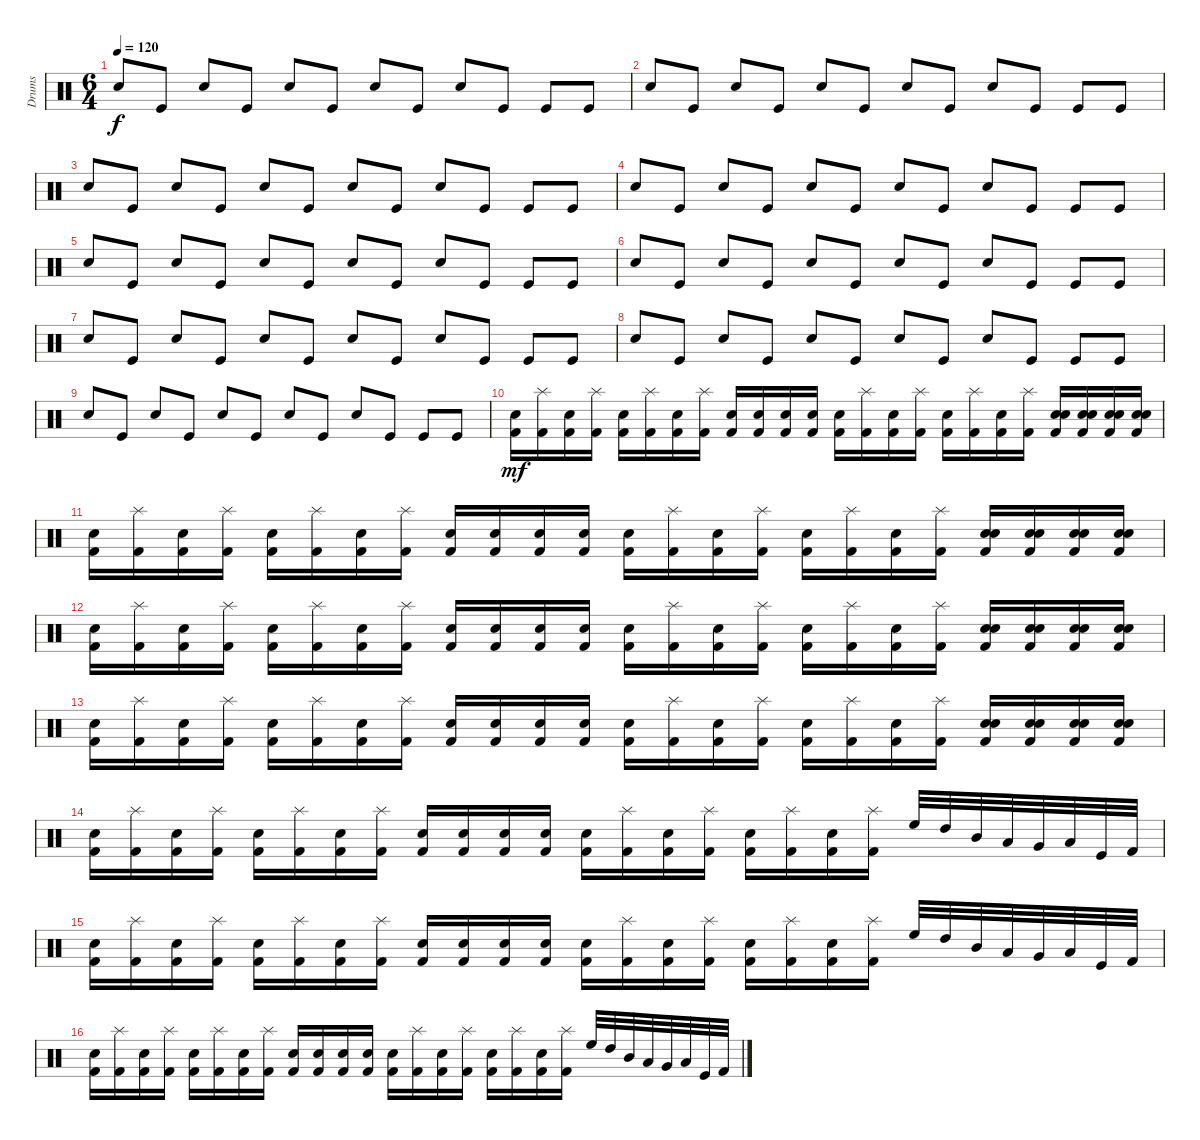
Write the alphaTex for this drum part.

\track ("Drums" "Drums") {instrument percussion}
\staff {score}
\articulation defaults
\ts (6 4)
\tempo 120
\clef neutral
\ks c "Snare (hit) 2".8{dy f} "Kick (hit)".8 "Snare (hit) 2".8 "Kick (hit)".8 "Snare (hit) 2".8 "Kick (hit)".8 "Snare (hit) 2".8 "Kick (hit)".8 "Snare (hit) 2".8 "Kick (hit)".8 "Kick (hit)".8 "Kick (hit)".8
|
"Snare (hit) 2".8 "Kick (hit)".8 "Snare (hit) 2".8 "Kick (hit)".8 "Snare (hit) 2".8 "Kick (hit)".8 "Snare (hit) 2".8 "Kick (hit)".8 "Snare (hit) 2".8 "Kick (hit)".8 "Kick (hit)".8 "Kick (hit)".8 |
"Snare (hit) 2".8 "Kick (hit)".8 "Snare (hit) 2".8 "Kick (hit)".8 "Snare (hit) 2".8 "Kick (hit)".8 "Snare (hit) 2".8 "Kick (hit)".8 "Snare (hit) 2".8 "Kick (hit)".8 "Kick (hit)".8 "Kick (hit)".8 |
"Snare (hit) 2".8 "Kick (hit)".8 "Snare (hit) 2".8 "Kick (hit)".8 "Snare (hit) 2".8 "Kick (hit)".8 "Snare (hit) 2".8 "Kick (hit)".8 "Snare (hit) 2".8 "Kick (hit)".8 "Kick (hit)".8 "Kick (hit)".8 |
"Snare (hit) 2".8 "Kick (hit)".8 "Snare (hit) 2".8 "Kick (hit)".8 "Snare (hit) 2".8 "Kick (hit)".8 "Snare (hit) 2".8 "Kick (hit)".8 "Snare (hit) 2".8 "Kick (hit)".8 "Kick (hit)".8 "Kick (hit)".8 |
"Snare (hit) 2".8 "Kick (hit)".8 "Snare (hit) 2".8 "Kick (hit)".8 "Snare (hit) 2".8 "Kick (hit)".8 "Snare (hit) 2".8 "Kick (hit)".8 "Snare (hit) 2".8 "Kick (hit)".8 "Kick (hit)".8 "Kick (hit)".8 |
"Snare (hit) 2".8 "Kick (hit)".8 "Snare (hit) 2".8 "Kick (hit)".8 "Snare (hit) 2".8 "Kick (hit)".8 "Snare (hit) 2".8 "Kick (hit)".8 "Snare (hit) 2".8 "Kick (hit)".8 "Kick (hit)".8 "Kick (hit)".8 |
"Snare (hit) 2".8 "Kick (hit)".8 "Snare (hit) 2".8 "Kick (hit)".8 "Snare (hit) 2".8 "Kick (hit)".8 "Snare (hit) 2".8 "Kick (hit)".8 "Snare (hit) 2".8 "Kick (hit)".8 "Kick (hit)".8 "Kick (hit)".8 |
"Snare (hit) 2".8 "Kick (hit)".8 "Snare (hit) 2".8 "Kick (hit)".8 "Snare (hit) 2".8 "Kick (hit)".8 "Snare (hit) 2".8 "Kick (hit)".8 "Snare (hit) 2".8 "Kick (hit)".8 "Kick (hit)".8 "Kick (hit)".8 |
("Electric Snare (hit)" "Kick (hit) 2").16{dy mf} ("Splash (hit)" "Kick (hit) 2").16 ("Electric Snare (hit)" "Kick (hit) 2").16 ("Splash (hit)" "Kick (hit) 2").16 ("Electric Snare (hit)" "Kick (hit) 2").16 ("Splash (hit)" "Kick (hit) 2").16 ("Electric Snare (hit)" "Kick (hit) 2").16 ("Splash (hit)" "Kick (hit) 2").16 ("Snare (hit) 2" "Kick (hit) 2").16 ("Snare (hit) 2" "Kick (hit) 2").16 ("Snare (hit) 2" "Kick (hit) 2").16 ("Snare (hit) 2" "Kick (hit) 2").16 ("Electric Snare (hit)" "Kick (hit) 2").16 ("Splash (hit)" "Kick (hit) 2").16 ("Electric Snare (hit)" "Kick (hit) 2").16 ("Splash (hit)" "Kick (hit) 2").16 ("Electric Snare (hit)" "Kick (hit) 2").16 ("Splash (hit)" "Kick (hit) 2").16 ("Electric Snare (hit)" "Kick (hit) 2").16 ("Splash (hit)" "Kick (hit) 2").16 ("Snare (hit) 2" "Electric Snare (hit)" "Kick (hit) 2").16 ("Snare (hit) 2" "Electric Snare (hit)" "Kick (hit) 2").16 ("Snare (hit) 2" "Electric Snare (hit)" "Kick (hit) 2").16 ("Snare (hit) 2" "Electric Snare (hit)" "Kick (hit) 2").16 |
("Electric Snare (hit)" "Kick (hit) 2").16 ("Splash (hit)" "Kick (hit) 2").16 ("Electric Snare (hit)" "Kick (hit) 2").16 ("Splash (hit)" "Kick (hit) 2").16 ("Electric Snare (hit)" "Kick (hit) 2").16 ("Splash (hit)" "Kick (hit) 2").16 ("Electric Snare (hit)" "Kick (hit) 2").16 ("Splash (hit)" "Kick (hit) 2").16 ("Snare (hit) 2" "Kick (hit) 2").16 ("Snare (hit) 2" "Kick (hit) 2").16 ("Snare (hit) 2" "Kick (hit) 2").16 ("Snare (hit) 2" "Kick (hit) 2").16 ("Electric Snare (hit)" "Kick (hit) 2").16 ("Splash (hit)" "Kick (hit) 2").16 ("Electric Snare (hit)" "Kick (hit) 2").16 ("Splash (hit)" "Kick (hit) 2").16 ("Electric Snare (hit)" "Kick (hit) 2").16 ("Splash (hit)" "Kick (hit) 2").16 ("Electric Snare (hit)" "Kick (hit) 2").16 ("Splash (hit)" "Kick (hit) 2").16 ("Snare (hit) 2" "Electric Snare (hit)" "Kick (hit) 2").16 ("Snare (hit) 2" "Electric Snare (hit)" "Kick (hit) 2").16 ("Snare (hit) 2" "Electric Snare (hit)" "Kick (hit) 2").16 ("Snare (hit) 2" "Electric Snare (hit)" "Kick (hit) 2").16 |
("Electric Snare (hit)" "Kick (hit) 2").16 ("Splash (hit)" "Kick (hit) 2").16 ("Electric Snare (hit)" "Kick (hit) 2").16 ("Splash (hit)" "Kick (hit) 2").16 ("Electric Snare (hit)" "Kick (hit) 2").16 ("Splash (hit)" "Kick (hit) 2").16 ("Electric Snare (hit)" "Kick (hit) 2").16 ("Splash (hit)" "Kick (hit) 2").16 ("Snare (hit) 2" "Kick (hit) 2").16 ("Snare (hit) 2" "Kick (hit) 2").16 ("Snare (hit) 2" "Kick (hit) 2").16 ("Snare (hit) 2" "Kick (hit) 2").16 ("Electric Snare (hit)" "Kick (hit) 2").16 ("Splash (hit)" "Kick (hit) 2").16 ("Electric Snare (hit)" "Kick (hit) 2").16 ("Splash (hit)" "Kick (hit) 2").16 ("Electric Snare (hit)" "Kick (hit) 2").16 ("Splash (hit)" "Kick (hit) 2").16 ("Electric Snare (hit)" "Kick (hit) 2").16 ("Splash (hit)" "Kick (hit) 2").16 ("Snare (hit) 2" "Electric Snare (hit)" "Kick (hit) 2").16 ("Snare (hit) 2" "Electric Snare (hit)" "Kick (hit) 2").16 ("Snare (hit) 2" "Electric Snare (hit)" "Kick (hit) 2").16 ("Snare (hit) 2" "Electric Snare (hit)" "Kick (hit) 2").16 |
("Electric Snare (hit)" "Kick (hit) 2").16 ("Splash (hit)" "Kick (hit) 2").16 ("Electric Snare (hit)" "Kick (hit) 2").16 ("Splash (hit)" "Kick (hit) 2").16 ("Electric Snare (hit)" "Kick (hit) 2").16 ("Splash (hit)" "Kick (hit) 2").16 ("Electric Snare (hit)" "Kick (hit) 2").16 ("Splash (hit)" "Kick (hit) 2").16 ("Snare (hit) 2" "Kick (hit) 2").16 ("Snare (hit) 2" "Kick (hit) 2").16 ("Snare (hit) 2" "Kick (hit) 2").16 ("Snare (hit) 2" "Kick (hit) 2").16 ("Electric Snare (hit)" "Kick (hit) 2").16 ("Splash (hit)" "Kick (hit) 2").16 ("Electric Snare (hit)" "Kick (hit) 2").16 ("Splash (hit)" "Kick (hit) 2").16 ("Electric Snare (hit)" "Kick (hit) 2").16 ("Splash (hit)" "Kick (hit) 2").16 ("Electric Snare (hit)" "Kick (hit) 2").16 ("Splash (hit)" "Kick (hit) 2").16 ("Snare (hit) 2" "Electric Snare (hit)" "Kick (hit) 2").16 ("Snare (hit) 2" "Electric Snare (hit)" "Kick (hit) 2").16 ("Snare (hit) 2" "Electric Snare (hit)" "Kick (hit) 2").16 ("Snare (hit) 2" "Electric Snare (hit)" "Kick (hit) 2").16 |
("Electric Snare (hit)" "Kick (hit) 2").16 ("Splash (hit)" "Kick (hit) 2").16 ("Electric Snare (hit)" "Kick (hit) 2").16 ("Splash (hit)" "Kick (hit) 2").16 ("Electric Snare (hit)" "Kick (hit) 2").16 ("Splash (hit)" "Kick (hit) 2").16 ("Electric Snare (hit)" "Kick (hit) 2").16 ("Splash (hit)" "Kick (hit) 2").16 ("Snare (hit) 2" "Kick (hit) 2").16 ("Snare (hit) 2" "Kick (hit) 2").16 ("Snare (hit) 2" "Kick (hit) 2").16 ("Snare (hit) 2" "Kick (hit) 2").16 ("Electric Snare (hit)" "Kick (hit) 2").16 ("Splash (hit)" "Kick (hit) 2").16 ("Electric Snare (hit)" "Kick (hit) 2").16 ("Splash (hit)" "Kick (hit) 2").16 ("Electric Snare (hit)" "Kick (hit) 2").16 ("Splash (hit)" "Kick (hit) 2").16 ("Electric Snare (hit)" "Kick (hit) 2").16 ("Splash (hit)" "Kick (hit) 2").16 "High Floor Tom (hit)".32 "High Tom (hit)".32 "Mid Tom (hit)".32 "Low Tom (hit)".32 "Very Low Tom (hit)".32 "Low Floor Tom (hit)".32 "Kick (hit)".32 "Kick (hit) 2".32 |
("Electric Snare (hit)" "Kick (hit) 2").16 ("Splash (hit)" "Kick (hit) 2").16 ("Electric Snare (hit)" "Kick (hit) 2").16 ("Splash (hit)" "Kick (hit) 2").16 ("Electric Snare (hit)" "Kick (hit) 2").16 ("Splash (hit)" "Kick (hit) 2").16 ("Electric Snare (hit)" "Kick (hit) 2").16 ("Splash (hit)" "Kick (hit) 2").16 ("Snare (hit) 2" "Kick (hit) 2").16 ("Snare (hit) 2" "Kick (hit) 2").16 ("Snare (hit) 2" "Kick (hit) 2").16 ("Snare (hit) 2" "Kick (hit) 2").16 ("Electric Snare (hit)" "Kick (hit) 2").16 ("Splash (hit)" "Kick (hit) 2").16 ("Electric Snare (hit)" "Kick (hit) 2").16 ("Splash (hit)" "Kick (hit) 2").16 ("Electric Snare (hit)" "Kick (hit) 2").16 ("Splash (hit)" "Kick (hit) 2").16 ("Electric Snare (hit)" "Kick (hit) 2").16 ("Splash (hit)" "Kick (hit) 2").16 "High Floor Tom (hit)".32 "High Tom (hit)".32 "Mid Tom (hit)".32 "Low Tom (hit)".32 "Very Low Tom (hit)".32 "Low Floor Tom (hit)".32 "Kick (hit)".32 "Kick (hit) 2".32 |
("Electric Snare (hit)" "Kick (hit) 2").16 ("Splash (hit)" "Kick (hit) 2").16 ("Electric Snare (hit)" "Kick (hit) 2").16 ("Splash (hit)" "Kick (hit) 2").16 ("Electric Snare (hit)" "Kick (hit) 2").16 ("Splash (hit)" "Kick (hit) 2").16 ("Electric Snare (hit)" "Kick (hit) 2").16 ("Splash (hit)" "Kick (hit) 2").16 ("Snare (hit) 2" "Kick (hit) 2").16 ("Snare (hit) 2" "Kick (hit) 2").16 ("Snare (hit) 2" "Kick (hit) 2").16 ("Snare (hit) 2" "Kick (hit) 2").16 ("Electric Snare (hit)" "Kick (hit) 2").16 ("Splash (hit)" "Kick (hit) 2").16 ("Electric Snare (hit)" "Kick (hit) 2").16 ("Splash (hit)" "Kick (hit) 2").16 ("Electric Snare (hit)" "Kick (hit) 2").16 ("Splash (hit)" "Kick (hit) 2").16 ("Electric Snare (hit)" "Kick (hit) 2").16 ("Splash (hit)" "Kick (hit) 2").16 "High Floor Tom (hit)".32 "High Tom (hit)".32 "Mid Tom (hit)".32 "Low Tom (hit)".32 "Very Low Tom (hit)".32 "Low Floor Tom (hit)".32 "Kick (hit)".32 "Kick (hit) 2".32
